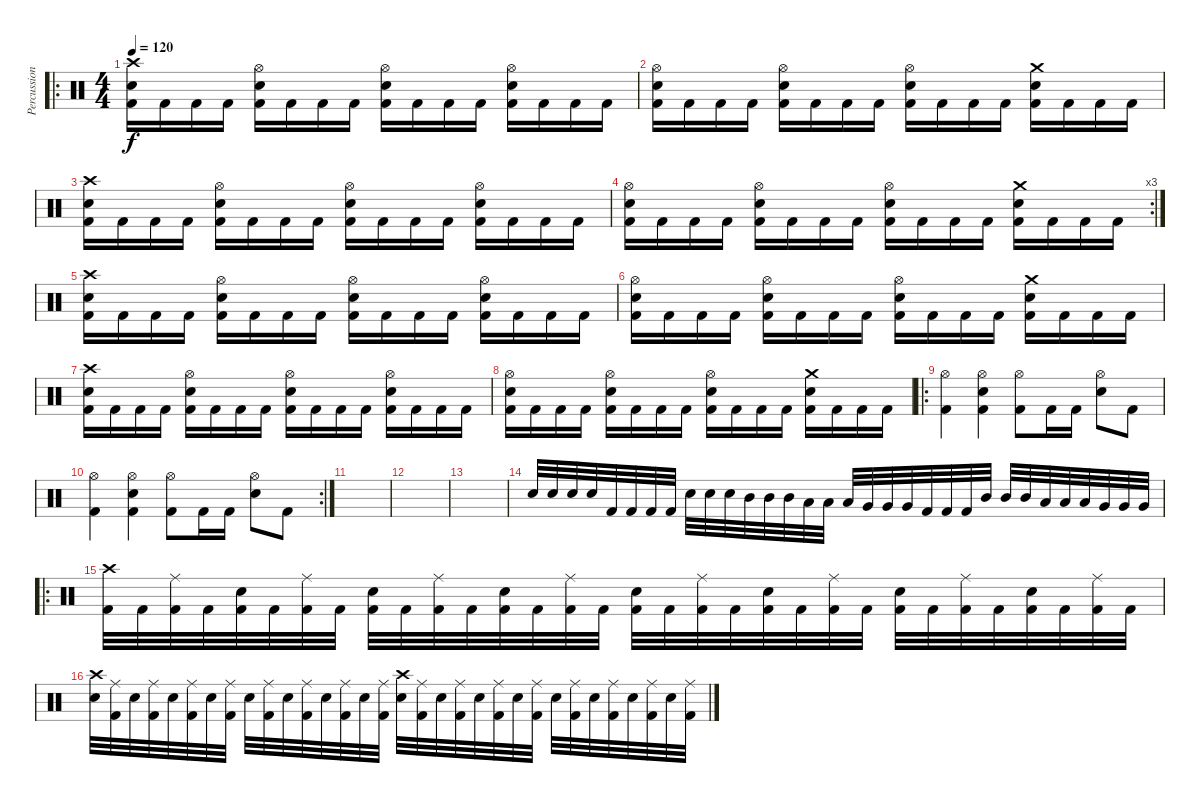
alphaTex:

\track ("Percussion" "Percussion") {instrument percussion}
\staff {score}
\articulation defaults
\ro
\ts (4 4)
\tempo 120
\clef neutral
\ks c
("Crash high (hit)" "Electric Snare (hit)" "Kick (hit) 2").16{dy f} "Kick (hit) 2".16 "Kick (hit) 2".16 "Kick (hit) 2".16 ("Hi-Hat (open)" "Electric Snare (hit)" "Kick (hit) 2").16 "Kick (hit) 2".16 "Kick (hit) 2".16 "Kick (hit) 2".16 ("Hi-Hat (open)" "Electric Snare (hit)" "Kick (hit) 2").16 "Kick (hit) 2".16 "Kick (hit) 2".16 "Kick (hit) 2".16 ("Hi-Hat (open)" "Electric Snare (hit)" "Kick (hit) 2").16 "Kick (hit) 2".16 "Kick (hit) 2".16 "Kick (hit) 2".16 |
("Hi-Hat (open)" "Electric Snare (hit)" "Kick (hit) 2").16 "Kick (hit) 2".16 "Kick (hit) 2".16 "Kick (hit) 2".16 ("Hi-Hat (open)" "Electric Snare (hit)" "Kick (hit) 2").16 "Kick (hit) 2".16 "Kick (hit) 2".16 "Kick (hit) 2".16 ("Hi-Hat (open)" "Electric Snare (hit)" "Kick (hit) 2").16 "Kick (hit) 2".16 "Kick (hit) 2".16 "Kick (hit) 2".16 ("Crash medium (hit)" "Electric Snare (hit)" "Kick (hit) 2").16 "Kick (hit) 2".16 "Kick (hit) 2".16 "Kick (hit) 2".16 |
("Crash high (hit)" "Electric Snare (hit)" "Kick (hit) 2").16 "Kick (hit) 2".16 "Kick (hit) 2".16 "Kick (hit) 2".16 ("Hi-Hat (open)" "Electric Snare (hit)" "Kick (hit) 2").16 "Kick (hit) 2".16 "Kick (hit) 2".16 "Kick (hit) 2".16 ("Hi-Hat (open)" "Electric Snare (hit)" "Kick (hit) 2").16 "Kick (hit) 2".16 "Kick (hit) 2".16 "Kick (hit) 2".16 ("Hi-Hat (open)" "Electric Snare (hit)" "Kick (hit) 2").16 "Kick (hit) 2".16 "Kick (hit) 2".16 "Kick (hit) 2".16 |
\rc 3
("Hi-Hat (open)" "Electric Snare (hit)" "Kick (hit) 2").16 "Kick (hit) 2".16 "Kick (hit) 2".16 "Kick (hit) 2".16 ("Hi-Hat (open)" "Electric Snare (hit)" "Kick (hit) 2").16 "Kick (hit) 2".16 "Kick (hit) 2".16 "Kick (hit) 2".16 ("Hi-Hat (open)" "Electric Snare (hit)" "Kick (hit) 2").16 "Kick (hit) 2".16 "Kick (hit) 2".16 "Kick (hit) 2".16 ("Crash medium (hit)" "Electric Snare (hit)" "Kick (hit) 2").16 "Kick (hit) 2".16 "Kick (hit) 2".16 "Kick (hit) 2".16 |
("Crash high (hit)" "Electric Snare (hit)" "Kick (hit) 2").16 "Kick (hit) 2".16 "Kick (hit) 2".16 "Kick (hit) 2".16 ("Hi-Hat (open)" "Electric Snare (hit)" "Kick (hit) 2").16 "Kick (hit) 2".16 "Kick (hit) 2".16 "Kick (hit) 2".16 ("Hi-Hat (open)" "Electric Snare (hit)" "Kick (hit) 2").16 "Kick (hit) 2".16 "Kick (hit) 2".16 "Kick (hit) 2".16 ("Hi-Hat (open)" "Electric Snare (hit)" "Kick (hit) 2").16 "Kick (hit) 2".16 "Kick (hit) 2".16 "Kick (hit) 2".16 |
("Hi-Hat (open)" "Electric Snare (hit)" "Kick (hit) 2").16 "Kick (hit) 2".16 "Kick (hit) 2".16 "Kick (hit) 2".16 ("Hi-Hat (open)" "Electric Snare (hit)" "Kick (hit) 2").16 "Kick (hit) 2".16 "Kick (hit) 2".16 "Kick (hit) 2".16 ("Hi-Hat (open)" "Electric Snare (hit)" "Kick (hit) 2").16 "Kick (hit) 2".16 "Kick (hit) 2".16 "Kick (hit) 2".16 ("Crash medium (hit)" "Electric Snare (hit)" "Kick (hit) 2").16 "Kick (hit) 2".16 "Kick (hit) 2".16 "Kick (hit) 2".16 |
("Crash high (hit)" "Electric Snare (hit)" "Kick (hit) 2").16 "Kick (hit) 2".16 "Kick (hit) 2".16 "Kick (hit) 2".16 ("Hi-Hat (open)" "Electric Snare (hit)" "Kick (hit) 2").16 "Kick (hit) 2".16 "Kick (hit) 2".16 "Kick (hit) 2".16 ("Hi-Hat (open)" "Electric Snare (hit)" "Kick (hit) 2").16 "Kick (hit) 2".16 "Kick (hit) 2".16 "Kick (hit) 2".16 ("Hi-Hat (open)" "Electric Snare (hit)" "Kick (hit) 2").16 "Kick (hit) 2".16 "Kick (hit) 2".16 "Kick (hit) 2".16 |
("Hi-Hat (open)" "Electric Snare (hit)" "Kick (hit) 2").16 "Kick (hit) 2".16 "Kick (hit) 2".16 "Kick (hit) 2".16 ("Hi-Hat (open)" "Electric Snare (hit)" "Kick (hit) 2").16 "Kick (hit) 2".16 "Kick (hit) 2".16 "Kick (hit) 2".16 ("Hi-Hat (open)" "Electric Snare (hit)" "Kick (hit) 2").16 "Kick (hit) 2".16 "Kick (hit) 2".16 "Kick (hit) 2".16 ("Crash medium (hit)" "Electric Snare (hit)" "Kick (hit) 2").16 "Kick (hit) 2".16 "Kick (hit) 2".16 "Kick (hit) 2".16 |
\ro
("Hi-Hat (open)" "Kick (hit) 2").4 ("Hi-Hat (open)" "Electric Snare (hit)" "Kick (hit) 2").4 ("Hi-Hat (open)" "Kick (hit) 2").8 "Kick (hit) 2".16 "Kick (hit) 2".16 ("Hi-Hat (open)" "Electric Snare (hit)").8 "Kick (hit) 2".8 |
\rc 2
("Hi-Hat (open)" "Kick (hit) 2").4 ("Hi-Hat (open)" "Electric Snare (hit)" "Kick (hit) 2").4 ("Hi-Hat (open)" "Kick (hit) 2").8 "Kick (hit) 2".16 "Kick (hit) 2".16 ("Hi-Hat (open)" "Electric Snare (hit)").8 "Kick (hit) 2".8 |
|
|
|
"Electric Snare (hit)".32 "Electric Snare (hit)".32 "Electric Snare (hit)".32 "Electric Snare (hit)".32 "Kick (hit) 2".32 "Kick (hit) 2".32 "Kick (hit) 2".32 "Kick (hit) 2".32 "Electric Snare (hit)".32 "Electric Snare (hit)".32 "Electric Snare (hit)".32 "Mid Tom (hit)".32 "Mid Tom (hit)".32 "Mid Tom (hit)".32 "Low Tom (hit)".32 "Low Tom (hit)".32 "Low Tom (hit)".32 "Very Low Tom (hit)".32 "Very Low Tom (hit)".32 "Very Low Tom (hit)".32 "Kick (hit) 2".32 "Kick (hit) 2".32 "Kick (hit) 2".32 "Mid Tom (hit)".32 "Mid Tom (hit)".32 "Mid Tom (hit)".32 "Low Tom (hit)".32 "Low Tom (hit)".32 "Low Tom (hit)".32 "Very Low Tom (hit)".32 "Very Low Tom (hit)".32 "Very Low Tom (hit)".32 |
\ro
("Crash high (hit)" "Kick (hit) 2").32 "Kick (hit) 2".32 ("Ride (middle)" "Kick (hit) 2").32 "Kick (hit) 2".32 ("Electric Snare (hit)" "Kick (hit) 2").32 "Kick (hit) 2".32 ("Ride (middle)" "Kick (hit) 2").32 "Kick (hit) 2".32 ("Electric Snare (hit)" "Kick (hit) 2").32 "Kick (hit) 2".32 ("Ride (middle)" "Kick (hit) 2").32 "Kick (hit) 2".32 ("Electric Snare (hit)" "Kick (hit) 2").32 "Kick (hit) 2".32 ("Ride (middle)" "Kick (hit) 2").32 "Kick (hit) 2".32 ("Electric Snare (hit)" "Kick (hit) 2").32 "Kick (hit) 2".32 ("Ride (middle)" "Kick (hit) 2").32 "Kick (hit) 2".32 ("Electric Snare (hit)" "Kick (hit) 2").32 "Kick (hit) 2".32 ("Ride (middle)" "Kick (hit) 2").32 "Kick (hit) 2".32 ("Electric Snare (hit)" "Kick (hit) 2").32 "Kick (hit) 2".32 ("Ride (middle)" "Kick (hit) 2").32 "Kick (hit) 2".32 ("Electric Snare (hit)" "Kick (hit) 2").32 "Kick (hit) 2".32 ("Ride (middle)" "Kick (hit) 2").32 "Kick (hit) 2".32 |
("Crash high (hit)" "Electric Snare (hit)").32 ("Ride (middle)" "Kick (hit) 2").32 "Electric Snare (hit)".32 ("Ride (middle)" "Kick (hit) 2").32 "Electric Snare (hit)".32 ("Ride (middle)" "Kick (hit) 2").32 "Electric Snare (hit)".32 ("Ride (middle)" "Kick (hit) 2").32 "Electric Snare (hit)".32 ("Ride (middle)" "Kick (hit) 2").32 "Electric Snare (hit)".32 ("Ride (middle)" "Kick (hit) 2").32 "Electric Snare (hit)".32 ("Ride (middle)" "Kick (hit) 2").32 "Electric Snare (hit)".32 ("Ride (middle)" "Kick (hit) 2").32 ("Crash high (hit)" "Electric Snare (hit)").32 ("Ride (middle)" "Kick (hit) 2").32 "Electric Snare (hit)".32 ("Ride (middle)" "Kick (hit) 2").32 "Electric Snare (hit)".32 ("Ride (middle)" "Kick (hit) 2").32 "Electric Snare (hit)".32 ("Ride (middle)" "Kick (hit) 2").32 "Electric Snare (hit)".32 ("Ride (middle)" "Kick (hit) 2").32 "Electric Snare (hit)".32 ("Ride (middle)" "Kick (hit) 2").32 "Electric Snare (hit)".32 ("Ride (middle)" "Kick (hit) 2").32 "Electric Snare (hit)".32 ("Ride (middle)" "Kick (hit) 2").32
